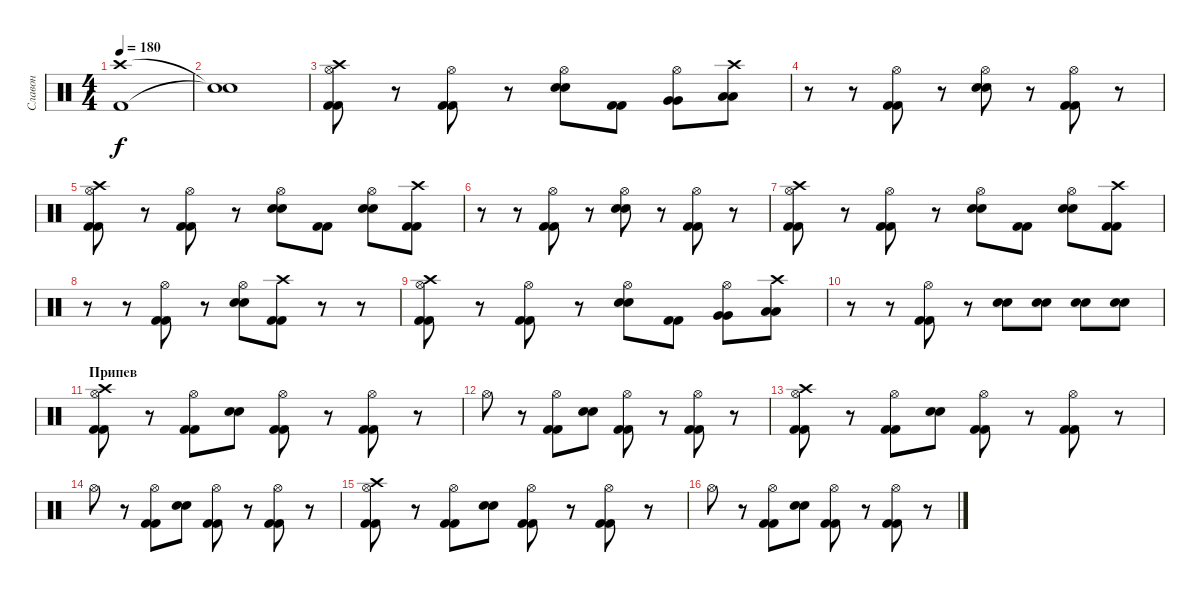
\track ("Славон" "Славон") {instrument percussion}
\staff {score}
\articulation defaults
\ts (4 4)
\tempo 180
\clef neutral
\ks c
("Crash high (hit)" "Kick (hit) 2").1{dy f} |
("Snare (hit)"{t} "Snare (hit)"{t}).1 |
("Hi-Hat (open)" "Kick (hit) 2" "Kick (hit) 2" "Crash high (hit)").8 r.8 ("Hi-Hat (open)" "Kick (hit) 2" "Kick (hit) 2").8 r.8 ("Hi-Hat (open)" "Electric Snare (hit)" "Electric Snare (hit)").8 ("Kick (hit) 2" "Kick (hit) 2").8 ("Hi-Hat (open)" "Very Low Tom (hit)" "Very Low Tom (hit)").8 ("Low Floor Tom (hit)" "Low Floor Tom (hit)" "Crash high (hit)").8 |
r.8 r.8 ("Hi-Hat (open)" "Kick (hit) 2" "Kick (hit) 2").8 r.8 ("Hi-Hat (open)" "Electric Snare (hit)" "Electric Snare (hit)").8 r.8 ("Hi-Hat (open)" "Kick (hit) 2" "Kick (hit) 2").8 r.8 |
("Hi-Hat (open)" "Kick (hit) 2" "Kick (hit) 2" "Crash high (hit)").8 r.8 ("Hi-Hat (open)" "Kick (hit) 2" "Kick (hit) 2").8 r.8 ("Hi-Hat (open)" "Electric Snare (hit)" "Electric Snare (hit)").8 ("Kick (hit) 2" "Kick (hit) 2").8 ("Hi-Hat (open)" "Electric Snare (hit)" "Electric Snare (hit)").8 ("Kick (hit) 2" "Kick (hit) 2" "Crash high (hit)").8 |
r.8 r.8 ("Hi-Hat (open)" "Kick (hit) 2" "Kick (hit) 2").8 r.8 ("Hi-Hat (open)" "Electric Snare (hit)" "Electric Snare (hit)").8 r.8 ("Hi-Hat (open)" "Kick (hit) 2" "Kick (hit) 2").8 r.8 |
("Hi-Hat (open)" "Kick (hit) 2" "Kick (hit) 2" "Crash high (hit)").8 r.8 ("Hi-Hat (open)" "Kick (hit) 2" "Kick (hit) 2").8 r.8 ("Hi-Hat (open)" "Electric Snare (hit)" "Electric Snare (hit)").8 ("Kick (hit) 2" "Kick (hit) 2").8 ("Hi-Hat (open)" "Electric Snare (hit)" "Electric Snare (hit)").8 ("Kick (hit) 2" "Kick (hit) 2" "Crash high (hit)").8 |
r.8 r.8 ("Hi-Hat (open)" "Kick (hit) 2" "Kick (hit) 2").8 r.8 ("Hi-Hat (open)" "Electric Snare (hit)" "Electric Snare (hit)").8 ("Kick (hit) 2" "Kick (hit) 2" "Crash high (hit)").8 r.8 r.8 |
("Hi-Hat (open)" "Kick (hit) 2" "Kick (hit) 2" "Crash high (hit)").8 r.8 ("Hi-Hat (open)" "Kick (hit) 2" "Kick (hit) 2").8 r.8 ("Hi-Hat (open)" "Electric Snare (hit)" "Electric Snare (hit)").8 ("Kick (hit) 2" "Kick (hit) 2").8 ("Hi-Hat (open)" "Very Low Tom (hit)" "Very Low Tom (hit)").8 ("Low Floor Tom (hit)" "Low Floor Tom (hit)" "Crash high (hit)").8 |
r.8 r.8 ("Hi-Hat (open)" "Kick (hit) 2" "Kick (hit) 2").8 r.8 ("Electric Snare (hit)" "Electric Snare (hit)").8 ("Electric Snare (hit)" "Electric Snare (hit)").8 ("Electric Snare (hit)" "Electric Snare (hit)").8 ("Electric Snare (hit)" "Electric Snare (hit)").8 |
\section ("" "Припев")
("Hi-Hat (open)" "Kick (hit) 2" "Kick (hit) 2" "Crash high (hit)").8 r.8 ("Hi-Hat (open)" "Kick (hit) 2" "Kick (hit) 2").8 ("Electric Snare (hit)" "Electric Snare (hit)").8 ("Hi-Hat (open)" "Kick (hit) 2" "Kick (hit) 2").8 r.8 ("Hi-Hat (open)" "Kick (hit) 2" "Kick (hit) 2").8 r.8 |
"Hi-Hat (open)".8 r.8 ("Hi-Hat (open)" "Kick (hit) 2" "Kick (hit) 2").8 ("Electric Snare (hit)" "Electric Snare (hit)").8 ("Hi-Hat (open)" "Kick (hit) 2" "Kick (hit) 2").8 r.8 ("Hi-Hat (open)" "Kick (hit) 2" "Kick (hit) 2").8 r.8 |
("Hi-Hat (open)" "Kick (hit) 2" "Kick (hit) 2" "Crash high (hit)").8 r.8 ("Hi-Hat (open)" "Kick (hit) 2" "Kick (hit) 2").8 ("Electric Snare (hit)" "Electric Snare (hit)").8 ("Hi-Hat (open)" "Kick (hit) 2" "Kick (hit) 2").8 r.8 ("Hi-Hat (open)" "Kick (hit) 2" "Kick (hit) 2").8 r.8 |
"Hi-Hat (open)".8 r.8 ("Hi-Hat (open)" "Kick (hit) 2" "Kick (hit) 2").8 ("Electric Snare (hit)" "Electric Snare (hit)").8 ("Hi-Hat (open)" "Kick (hit) 2" "Kick (hit) 2").8 r.8 ("Hi-Hat (open)" "Kick (hit) 2" "Kick (hit) 2").8 r.8 |
("Hi-Hat (open)" "Kick (hit) 2" "Kick (hit) 2" "Crash high (hit)").8 r.8 ("Hi-Hat (open)" "Kick (hit) 2" "Kick (hit) 2").8 ("Electric Snare (hit)" "Electric Snare (hit)").8 ("Hi-Hat (open)" "Kick (hit) 2" "Kick (hit) 2").8 r.8 ("Hi-Hat (open)" "Kick (hit) 2" "Kick (hit) 2").8 r.8 |
"Hi-Hat (open)".8 r.8 ("Hi-Hat (open)" "Kick (hit) 2" "Kick (hit) 2").8 ("Electric Snare (hit)" "Electric Snare (hit)").8 ("Hi-Hat (open)" "Kick (hit) 2" "Kick (hit) 2").8 r.8 ("Hi-Hat (open)" "Kick (hit) 2" "Kick (hit) 2").8 r.8
